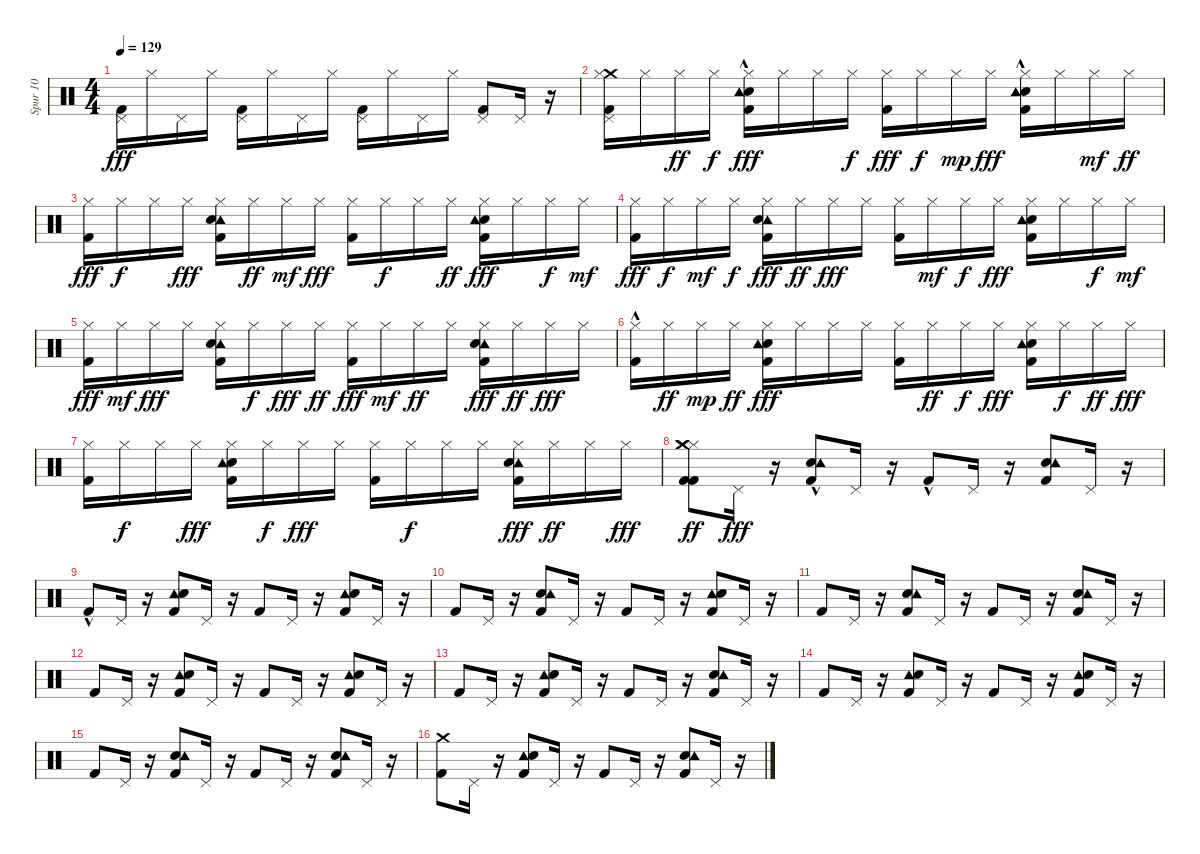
\track ("Spur 10" "Spur 10") {instrument percussion}
\staff {score}
\articulation defaults
\ts (4 4)
\tempo 129
\clef neutral
\ks c
("Pedal Hi-Hat (hit)" "Kick (hit) 2").16{dy fff} "Hi-Hat (closed)".16 "Pedal Hi-Hat (hit)".16 "Hi-Hat (closed)".16 ("Pedal Hi-Hat (hit)" "Kick (hit) 2").16 "Hi-Hat (closed)".16 "Pedal Hi-Hat (hit)".16 "Hi-Hat (closed)".16 ("Kick (hit) 2" "Pedal Hi-Hat (hit)").16 "Hi-Hat (closed)".16 "Pedal Hi-Hat (hit)".16 "Hi-Hat (closed)".16 ("Kick (hit) 2" "Pedal Hi-Hat (hit)").8 "Pedal Hi-Hat (hit)".16 r.16 |
("Crash medium (hit)" "Pedal Hi-Hat (hit)" "Hi-Hat (closed)" "Kick (hit) 2").16 "Hi-Hat (closed)".16 "Hi-Hat (closed)".16{dy ff} "Hi-Hat (closed)".16{dy f} ("Hi-Hat (closed)" "Kick (hit) 2"{hac} "Electric Snare (hit)" "Tambourine (hit)").16{dy fff} "Hi-Hat (closed)".16 "Hi-Hat (closed)".16 "Hi-Hat (closed)".16{dy f} ("Kick (hit) 2" "Hi-Hat (closed)").16{dy fff} "Hi-Hat (closed)".16{dy f} "Hi-Hat (closed)".16{dy mp} "Hi-Hat (closed)".16{dy fff} ("Electric Snare (hit)"{hac} "Tambourine (hit)" "Hi-Hat (closed)" "Kick (hit) 2").16 "Hi-Hat (closed)".16 "Hi-Hat (closed)".16{dy mf} "Hi-Hat (closed)".16{dy ff} |
("Kick (hit) 2" "Hi-Hat (closed)").16{dy fff} "Hi-Hat (closed)".16{dy f} "Hi-Hat (closed)".16 "Hi-Hat (closed)".16{dy fff} ("Hi-Hat (closed)" "Tambourine (hit)" "Kick (hit) 2" "Electric Snare (hit)").16 "Hi-Hat (closed)".16{dy ff} "Hi-Hat (closed)".16{dy mf} "Hi-Hat (closed)".16{dy fff} ("Hi-Hat (closed)" "Kick (hit) 2").16 "Hi-Hat (closed)".16{dy f} "Hi-Hat (closed)".16 "Hi-Hat (closed)".16{dy ff} ("Electric Snare (hit)" "Tambourine (hit)" "Hi-Hat (closed)" "Kick (hit) 2").16{dy fff} "Hi-Hat (closed)".16 "Hi-Hat (closed)".16{dy f} "Hi-Hat (closed)".16{dy mf} |
("Hi-Hat (closed)" "Kick (hit) 2").16{dy fff} "Hi-Hat (closed)".16{dy f} "Hi-Hat (closed)".16{dy mf} "Hi-Hat (closed)".16{dy f} ("Tambourine (hit)" "Kick (hit) 2" "Electric Snare (hit)" "Hi-Hat (closed)").16{dy fff} "Hi-Hat (closed)".16{dy ff} "Hi-Hat (closed)".16{dy fff} "Hi-Hat (closed)".16 ("Hi-Hat (closed)" "Kick (hit) 2").16 "Hi-Hat (closed)".16{dy mf} "Hi-Hat (closed)".16{dy f} "Hi-Hat (closed)".16{dy fff} ("Hi-Hat (closed)" "Kick (hit) 2" "Electric Snare (hit)" "Tambourine (hit)").16 "Hi-Hat (closed)".16 "Hi-Hat (closed)".16{dy f} "Hi-Hat (closed)".16{dy mf} |
("Hi-Hat (closed)" "Kick (hit) 2").16{dy fff} "Hi-Hat (closed)".16{dy mf} "Hi-Hat (closed)".16{dy fff} "Hi-Hat (closed)".16 ("Tambourine (hit)" "Hi-Hat (closed)" "Kick (hit) 2" "Electric Snare (hit)").16 "Hi-Hat (closed)".16{dy f} "Hi-Hat (closed)".16{dy fff} "Hi-Hat (closed)".16{dy ff} ("Hi-Hat (closed)" "Kick (hit) 2").16{dy fff} "Hi-Hat (closed)".16{dy mf} "Hi-Hat (closed)".16{dy ff} "Hi-Hat (closed)".16 ("Tambourine (hit)" "Hi-Hat (closed)" "Electric Snare (hit)" "Kick (hit) 2").16{dy fff} "Hi-Hat (closed)".16{dy ff} "Hi-Hat (closed)".16{dy fff} "Hi-Hat (closed)".16 |
("Kick (hit) 2"{hac} "Hi-Hat (closed)").16 "Hi-Hat (closed)".16{dy ff} "Hi-Hat (closed)".16{dy mp} "Hi-Hat (closed)".16{dy ff} ("Electric Snare (hit)" "Tambourine (hit)" "Kick (hit) 2" "Hi-Hat (closed)").16{dy fff} "Hi-Hat (closed)".16 "Hi-Hat (closed)".16 "Hi-Hat (closed)".16 ("Hi-Hat (closed)" "Kick (hit) 2").16 "Hi-Hat (closed)".16{dy ff} "Hi-Hat (closed)".16{dy f} "Hi-Hat (closed)".16{dy fff} ("Hi-Hat (closed)" "Electric Snare (hit)" "Kick (hit) 2" "Tambourine (hit)").16 "Hi-Hat (closed)".16{dy f} "Hi-Hat (closed)".16{dy ff} "Hi-Hat (closed)".16{dy fff} |
("Kick (hit) 2" "Hi-Hat (closed)").16 "Hi-Hat (closed)".16{dy f} "Hi-Hat (closed)".16 "Hi-Hat (closed)".16{dy fff} ("Electric Snare (hit)" "Kick (hit) 2" "Hi-Hat (closed)" "Tambourine (hit)").16 "Hi-Hat (closed)".16{dy f} "Hi-Hat (closed)".16{dy fff} "Hi-Hat (closed)".16 ("Hi-Hat (closed)" "Kick (hit) 2").16 "Hi-Hat (closed)".16{dy f} "Hi-Hat (closed)".16 "Hi-Hat (closed)".16 ("Kick (hit) 2" "Hi-Hat (closed)" "Tambourine (hit)" "Electric Snare (hit)").16{dy fff} "Hi-Hat (closed)".16{dy ff} "Hi-Hat (closed)".16 "Hi-Hat (closed)".16{dy fff} |
("Hi-Hat (closed)" "Kick (hit) 2" "Crash medium (hit)" "Kick (hit) 2" "Crash medium (hit)").8{dy ff} "Pedal Hi-Hat (hit)".16{dy fff} r.16 ("Electric Snare (hit)" "Tambourine (hit)" "Kick (hit) 2"{hac}).8 "Pedal Hi-Hat (hit)".16 r.16 "Kick (hit) 2"{hac}.8 "Pedal Hi-Hat (hit)".16 r.16 ("Kick (hit) 2" "Electric Snare (hit)" "Tambourine (hit)").8 "Pedal Hi-Hat (hit)".16 r.16 |
"Kick (hit) 2"{hac}.8 "Pedal Hi-Hat (hit)".16 r.16 ("Tambourine (hit)" "Kick (hit) 2" "Electric Snare (hit)").8 "Pedal Hi-Hat (hit)".16 r.16 "Kick (hit) 2".8 "Pedal Hi-Hat (hit)".16 r.16 ("Tambourine (hit)" "Kick (hit) 2" "Electric Snare (hit)").8 "Pedal Hi-Hat (hit)".16 r.16 |
"Kick (hit) 2".8 "Pedal Hi-Hat (hit)".16 r.16 ("Electric Snare (hit)" "Tambourine (hit)" "Kick (hit) 2").8 "Pedal Hi-Hat (hit)".16 r.16 "Kick (hit) 2".8 "Pedal Hi-Hat (hit)".16 r.16 ("Tambourine (hit)" "Electric Snare (hit)" "Kick (hit) 2").8 "Pedal Hi-Hat (hit)".16 r.16 |
"Kick (hit) 2".8 "Pedal Hi-Hat (hit)".16 r.16 ("Kick (hit) 2" "Electric Snare (hit)" "Tambourine (hit)").8 "Pedal Hi-Hat (hit)".16 r.16 "Kick (hit) 2".8 "Pedal Hi-Hat (hit)".16 r.16 ("Kick (hit) 2" "Electric Snare (hit)" "Tambourine (hit)").8 "Pedal Hi-Hat (hit)".16 r.16 |
"Kick (hit) 2".8 "Pedal Hi-Hat (hit)".16 r.16 ("Kick (hit) 2" "Tambourine (hit)" "Electric Snare (hit)").8 "Pedal Hi-Hat (hit)".16 r.16 "Kick (hit) 2".8 "Pedal Hi-Hat (hit)".16 r.16 ("Tambourine (hit)" "Electric Snare (hit)" "Kick (hit) 2").8 "Pedal Hi-Hat (hit)".16 r.16 |
"Kick (hit) 2".8 "Pedal Hi-Hat (hit)".16 r.16 ("Tambourine (hit)" "Kick (hit) 2" "Electric Snare (hit)").8 "Pedal Hi-Hat (hit)".16 r.16 "Kick (hit) 2".8 "Pedal Hi-Hat (hit)".16 r.16 ("Kick (hit) 2" "Electric Snare (hit)" "Tambourine (hit)").8 "Pedal Hi-Hat (hit)".16 r.16 |
"Kick (hit) 2".8 "Pedal Hi-Hat (hit)".16 r.16 ("Tambourine (hit)" "Electric Snare (hit)" "Kick (hit) 2").8 "Pedal Hi-Hat (hit)".16 r.16 "Kick (hit) 2".8 "Pedal Hi-Hat (hit)".16 r.16 ("Tambourine (hit)" "Electric Snare (hit)" "Kick (hit) 2").8 "Pedal Hi-Hat (hit)".16 r.16 |
"Kick (hit) 2".8 "Pedal Hi-Hat (hit)".16 r.16 ("Electric Snare (hit)" "Tambourine (hit)" "Kick (hit) 2").8 "Pedal Hi-Hat (hit)".16 r.16 "Kick (hit) 2".8 "Pedal Hi-Hat (hit)".16 r.16 ("Electric Snare (hit)" "Tambourine (hit)" "Kick (hit) 2").8 "Pedal Hi-Hat (hit)".16 r.16 |
("Kick (hit) 2" "Crash medium (hit)").8 "Pedal Hi-Hat (hit)".16 r.16 ("Kick (hit) 2" "Tambourine (hit)" "Electric Snare (hit)").8 "Pedal Hi-Hat (hit)".16 r.16 "Kick (hit) 2".8 "Pedal Hi-Hat (hit)".16 r.16 ("Electric Snare (hit)" "Kick (hit) 2" "Tambourine (hit)").8 "Pedal Hi-Hat (hit)".16 r.16
